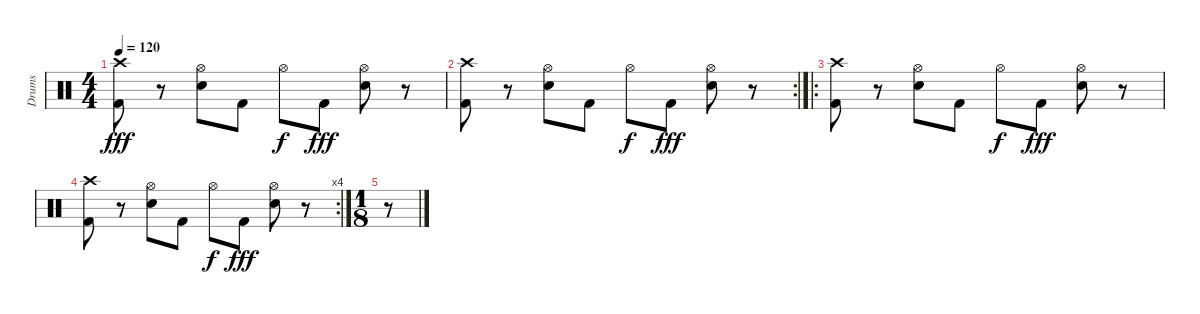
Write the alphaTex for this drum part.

\track ("Drums" "Drums") {instrument percussion}
\staff {score}
\articulation defaults
\ts (4 4)
\tempo 120
\clef neutral
\ks c
("Crash high (hit)" "Kick (hit) 2").8{dy fff} r.8 ("Hi-Hat (open)" "Snare (hit) 2").8 "Kick (hit) 2".8 "Hi-Hat (open)".8{dy f} "Kick (hit) 2".8{dy fff} ("Hi-Hat (open)" "Snare (hit) 2").8 r.8 |
\rc 2
("Crash high (hit)" "Kick (hit) 2").8 r.8 ("Hi-Hat (open)" "Snare (hit) 2").8 "Kick (hit) 2".8 "Hi-Hat (open)".8{dy f} "Kick (hit) 2".8{dy fff} ("Hi-Hat (open)" "Snare (hit) 2").8 r.8 |
\ro
("Crash high (hit)" "Kick (hit) 2").8 r.8 ("Hi-Hat (open)" "Snare (hit) 2").8 "Kick (hit) 2".8 "Hi-Hat (open)".8{dy f} "Kick (hit) 2".8{dy fff} ("Hi-Hat (open)" "Snare (hit) 2").8 r.8 |
\rc 4
("Crash high (hit)" "Kick (hit) 2").8 r.8 ("Hi-Hat (open)" "Snare (hit) 2").8 "Kick (hit) 2".8 "Hi-Hat (open)".8{dy f} "Kick (hit) 2".8{dy fff} ("Hi-Hat (open)" "Snare (hit) 2").8 r.8 |
\ts (1 8)
r.8
